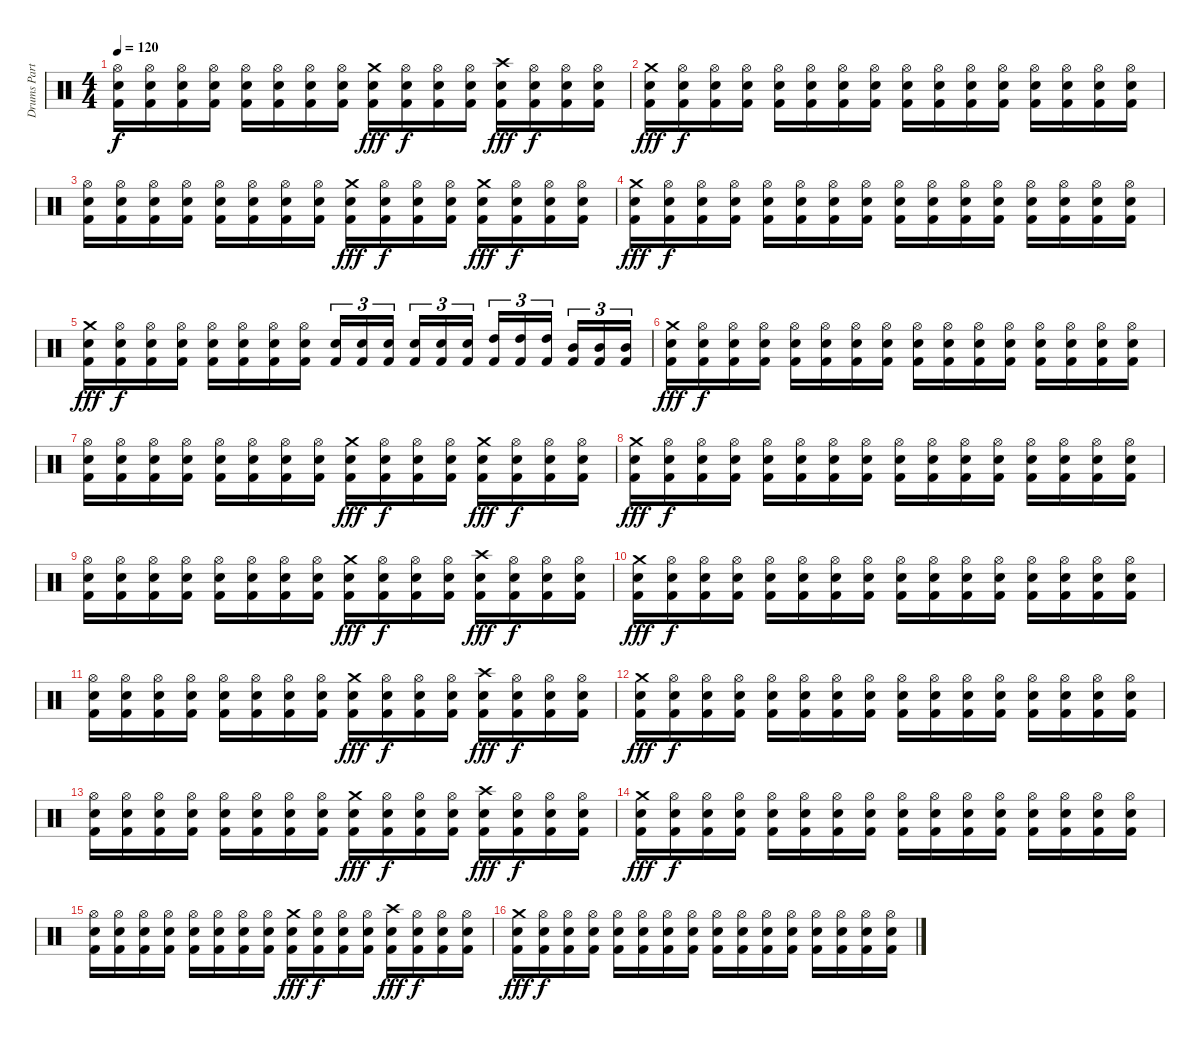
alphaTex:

\track ("Drums Part" "Drums Part") {instrument percussion}
\staff {score}
\articulation defaults
\ts (4 4)
\tempo 120
\clef neutral
\ks c
("Hi-Hat (open)" "Electric Snare (hit)" "Kick (hit) 2").16{dy f} ("Hi-Hat (open)" "Electric Snare (hit)" "Kick (hit) 2").16 ("Hi-Hat (open)" "Electric Snare (hit)" "Kick (hit) 2").16 ("Hi-Hat (open)" "Electric Snare (hit)" "Kick (hit) 2").16 ("Hi-Hat (open)" "Electric Snare (hit)" "Kick (hit) 2").16 ("Hi-Hat (open)" "Electric Snare (hit)" "Kick (hit) 2").16 ("Hi-Hat (open)" "Electric Snare (hit)" "Kick (hit) 2").16 ("Hi-Hat (open)" "Electric Snare (hit)" "Kick (hit) 2").16 ("Crash medium (hit)" "Electric Snare (hit)" "Kick (hit) 2").16{dy fff} ("Hi-Hat (open)" "Electric Snare (hit)" "Kick (hit) 2").16{dy f} ("Hi-Hat (open)" "Electric Snare (hit)" "Kick (hit) 2").16 ("Hi-Hat (open)" "Electric Snare (hit)" "Kick (hit) 2").16 ("Crash high (hit)" "Electric Snare (hit)" "Kick (hit) 2").16{dy fff} ("Hi-Hat (open)" "Electric Snare (hit)" "Kick (hit) 2").16{dy f} ("Hi-Hat (open)" "Electric Snare (hit)" "Kick (hit) 2").16 ("Hi-Hat (open)" "Electric Snare (hit)" "Kick (hit) 2").16 |
("Crash medium (hit)" "Electric Snare (hit)" "Kick (hit) 2").16{dy fff} ("Hi-Hat (open)" "Electric Snare (hit)" "Kick (hit) 2").16{dy f} ("Hi-Hat (open)" "Electric Snare (hit)" "Kick (hit) 2").16 ("Hi-Hat (open)" "Electric Snare (hit)" "Kick (hit) 2").16 ("Hi-Hat (open)" "Electric Snare (hit)" "Kick (hit) 2").16 ("Hi-Hat (open)" "Electric Snare (hit)" "Kick (hit) 2").16 ("Hi-Hat (open)" "Electric Snare (hit)" "Kick (hit) 2").16 ("Hi-Hat (open)" "Electric Snare (hit)" "Kick (hit) 2").16 ("Hi-Hat (open)" "Electric Snare (hit)" "Kick (hit) 2").16 ("Hi-Hat (open)" "Electric Snare (hit)" "Kick (hit) 2").16 ("Hi-Hat (open)" "Electric Snare (hit)" "Kick (hit) 2").16 ("Hi-Hat (open)" "Electric Snare (hit)" "Kick (hit) 2").16 ("Hi-Hat (open)" "Electric Snare (hit)" "Kick (hit) 2").16 ("Hi-Hat (open)" "Electric Snare (hit)" "Kick (hit) 2").16 ("Hi-Hat (open)" "Electric Snare (hit)" "Kick (hit) 2").16 ("Hi-Hat (open)" "Electric Snare (hit)" "Kick (hit) 2").16 |
("Hi-Hat (open)" "Electric Snare (hit)" "Kick (hit) 2").16 ("Hi-Hat (open)" "Electric Snare (hit)" "Kick (hit) 2").16 ("Hi-Hat (open)" "Electric Snare (hit)" "Kick (hit) 2").16 ("Hi-Hat (open)" "Electric Snare (hit)" "Kick (hit) 2").16 ("Hi-Hat (open)" "Electric Snare (hit)" "Kick (hit) 2").16 ("Hi-Hat (open)" "Electric Snare (hit)" "Kick (hit) 2").16 ("Hi-Hat (open)" "Electric Snare (hit)" "Kick (hit) 2").16 ("Hi-Hat (open)" "Electric Snare (hit)" "Kick (hit) 2").16 ("Crash medium (hit)" "Electric Snare (hit)" "Kick (hit) 2").16{dy fff} ("Hi-Hat (open)" "Electric Snare (hit)" "Kick (hit) 2").16{dy f} ("Hi-Hat (open)" "Electric Snare (hit)" "Kick (hit) 2").16 ("Hi-Hat (open)" "Electric Snare (hit)" "Kick (hit) 2").16 ("Crash medium (hit)" "Electric Snare (hit)" "Kick (hit) 2").16{dy fff} ("Hi-Hat (open)" "Electric Snare (hit)" "Kick (hit) 2").16{dy f} ("Hi-Hat (open)" "Electric Snare (hit)" "Kick (hit) 2").16 ("Hi-Hat (open)" "Electric Snare (hit)" "Kick (hit) 2").16 |
("Crash medium (hit)" "Electric Snare (hit)" "Kick (hit) 2").16{dy fff} ("Hi-Hat (open)" "Electric Snare (hit)" "Kick (hit) 2").16{dy f} ("Hi-Hat (open)" "Electric Snare (hit)" "Kick (hit) 2").16 ("Hi-Hat (open)" "Electric Snare (hit)" "Kick (hit) 2").16 ("Hi-Hat (open)" "Electric Snare (hit)" "Kick (hit) 2").16 ("Hi-Hat (open)" "Electric Snare (hit)" "Kick (hit) 2").16 ("Hi-Hat (open)" "Electric Snare (hit)" "Kick (hit) 2").16 ("Hi-Hat (open)" "Electric Snare (hit)" "Kick (hit) 2").16 ("Hi-Hat (open)" "Electric Snare (hit)" "Kick (hit) 2").16 ("Hi-Hat (open)" "Electric Snare (hit)" "Kick (hit) 2").16 ("Hi-Hat (open)" "Electric Snare (hit)" "Kick (hit) 2").16 ("Hi-Hat (open)" "Electric Snare (hit)" "Kick (hit) 2").16 ("Hi-Hat (open)" "Electric Snare (hit)" "Kick (hit) 2").16 ("Hi-Hat (open)" "Electric Snare (hit)" "Kick (hit) 2").16 ("Hi-Hat (open)" "Electric Snare (hit)" "Kick (hit) 2").16 ("Hi-Hat (open)" "Electric Snare (hit)" "Kick (hit) 2").16 |
("Crash medium (hit)" "Electric Snare (hit)" "Kick (hit) 2").16{dy fff} ("Hi-Hat (open)" "Electric Snare (hit)" "Kick (hit) 2").16{dy f} ("Hi-Hat (open)" "Electric Snare (hit)" "Kick (hit) 2").16 ("Hi-Hat (open)" "Electric Snare (hit)" "Kick (hit) 2").16 ("Hi-Hat (open)" "Electric Snare (hit)" "Kick (hit) 2").16 ("Hi-Hat (open)" "Electric Snare (hit)" "Kick (hit) 2").16 ("Hi-Hat (open)" "Electric Snare (hit)" "Kick (hit) 2").16 ("Hi-Hat (open)" "Electric Snare (hit)" "Kick (hit) 2").16 ("Electric Snare (hit)" "Kick (hit) 2").16{tu (3 2)} ("Electric Snare (hit)" "Kick (hit) 2").16{tu (3 2)} ("Electric Snare (hit)" "Kick (hit) 2").16{tu (3 2)} ("Electric Snare (hit)" "Kick (hit) 2").16{tu (3 2)} ("Electric Snare (hit)" "Kick (hit) 2").16{tu (3 2)} ("Electric Snare (hit)" "Kick (hit) 2").16{tu (3 2)} ("High Tom (hit)" "Kick (hit) 2").16{tu (3 2)} ("High Tom (hit)" "Kick (hit) 2").16{tu (3 2)} ("High Tom (hit)" "Kick (hit) 2").16{tu (3 2)} ("Mid Tom (hit)" "Kick (hit) 2").16{tu (3 2)} ("Mid Tom (hit)" "Kick (hit) 2").16{tu (3 2)} ("Mid Tom (hit)" "Kick (hit) 2").16{tu (3 2)} |
("Crash medium (hit)" "Electric Snare (hit)" "Kick (hit) 2").16{dy fff} ("Hi-Hat (open)" "Electric Snare (hit)" "Kick (hit) 2").16{dy f} ("Hi-Hat (open)" "Electric Snare (hit)" "Kick (hit) 2").16 ("Hi-Hat (open)" "Electric Snare (hit)" "Kick (hit) 2").16 ("Hi-Hat (open)" "Electric Snare (hit)" "Kick (hit) 2").16 ("Hi-Hat (open)" "Electric Snare (hit)" "Kick (hit) 2").16 ("Hi-Hat (open)" "Electric Snare (hit)" "Kick (hit) 2").16 ("Hi-Hat (open)" "Electric Snare (hit)" "Kick (hit) 2").16 ("Hi-Hat (open)" "Electric Snare (hit)" "Kick (hit) 2").16 ("Hi-Hat (open)" "Electric Snare (hit)" "Kick (hit) 2").16 ("Hi-Hat (open)" "Electric Snare (hit)" "Kick (hit) 2").16 ("Hi-Hat (open)" "Electric Snare (hit)" "Kick (hit) 2").16 ("Hi-Hat (open)" "Electric Snare (hit)" "Kick (hit) 2").16 ("Hi-Hat (open)" "Electric Snare (hit)" "Kick (hit) 2").16 ("Hi-Hat (open)" "Electric Snare (hit)" "Kick (hit) 2").16 ("Hi-Hat (open)" "Electric Snare (hit)" "Kick (hit) 2").16 |
("Hi-Hat (open)" "Electric Snare (hit)" "Kick (hit) 2").16 ("Hi-Hat (open)" "Electric Snare (hit)" "Kick (hit) 2").16 ("Hi-Hat (open)" "Electric Snare (hit)" "Kick (hit) 2").16 ("Hi-Hat (open)" "Electric Snare (hit)" "Kick (hit) 2").16 ("Hi-Hat (open)" "Electric Snare (hit)" "Kick (hit) 2").16 ("Hi-Hat (open)" "Electric Snare (hit)" "Kick (hit) 2").16 ("Hi-Hat (open)" "Electric Snare (hit)" "Kick (hit) 2").16 ("Hi-Hat (open)" "Electric Snare (hit)" "Kick (hit) 2").16 ("Crash medium (hit)" "Electric Snare (hit)" "Kick (hit) 2").16{dy fff} ("Hi-Hat (open)" "Electric Snare (hit)" "Kick (hit) 2").16{dy f} ("Hi-Hat (open)" "Electric Snare (hit)" "Kick (hit) 2").16 ("Hi-Hat (open)" "Electric Snare (hit)" "Kick (hit) 2").16 ("Crash medium (hit)" "Electric Snare (hit)" "Kick (hit) 2").16{dy fff} ("Hi-Hat (open)" "Electric Snare (hit)" "Kick (hit) 2").16{dy f} ("Hi-Hat (open)" "Electric Snare (hit)" "Kick (hit) 2").16 ("Hi-Hat (open)" "Electric Snare (hit)" "Kick (hit) 2").16 |
("Crash medium (hit)" "Electric Snare (hit)" "Kick (hit) 2").16{dy fff} ("Hi-Hat (open)" "Electric Snare (hit)" "Kick (hit) 2").16{dy f} ("Hi-Hat (open)" "Electric Snare (hit)" "Kick (hit) 2").16 ("Hi-Hat (open)" "Electric Snare (hit)" "Kick (hit) 2").16 ("Hi-Hat (open)" "Electric Snare (hit)" "Kick (hit) 2").16 ("Hi-Hat (open)" "Electric Snare (hit)" "Kick (hit) 2").16 ("Hi-Hat (open)" "Electric Snare (hit)" "Kick (hit) 2").16 ("Hi-Hat (open)" "Electric Snare (hit)" "Kick (hit) 2").16 ("Hi-Hat (open)" "Electric Snare (hit)" "Kick (hit) 2").16 ("Hi-Hat (open)" "Electric Snare (hit)" "Kick (hit) 2").16 ("Hi-Hat (open)" "Electric Snare (hit)" "Kick (hit) 2").16 ("Hi-Hat (open)" "Electric Snare (hit)" "Kick (hit) 2").16 ("Hi-Hat (open)" "Electric Snare (hit)" "Kick (hit) 2").16 ("Hi-Hat (open)" "Electric Snare (hit)" "Kick (hit) 2").16 ("Hi-Hat (open)" "Electric Snare (hit)" "Kick (hit) 2").16 ("Hi-Hat (open)" "Electric Snare (hit)" "Kick (hit) 2").16 |
("Hi-Hat (open)" "Electric Snare (hit)" "Kick (hit) 2").16 ("Hi-Hat (open)" "Electric Snare (hit)" "Kick (hit) 2").16 ("Hi-Hat (open)" "Electric Snare (hit)" "Kick (hit) 2").16 ("Hi-Hat (open)" "Electric Snare (hit)" "Kick (hit) 2").16 ("Hi-Hat (open)" "Electric Snare (hit)" "Kick (hit) 2").16 ("Hi-Hat (open)" "Electric Snare (hit)" "Kick (hit) 2").16 ("Hi-Hat (open)" "Electric Snare (hit)" "Kick (hit) 2").16 ("Hi-Hat (open)" "Electric Snare (hit)" "Kick (hit) 2").16 ("Crash medium (hit)" "Electric Snare (hit)" "Kick (hit) 2").16{dy fff} ("Hi-Hat (open)" "Electric Snare (hit)" "Kick (hit) 2").16{dy f} ("Hi-Hat (open)" "Electric Snare (hit)" "Kick (hit) 2").16 ("Hi-Hat (open)" "Electric Snare (hit)" "Kick (hit) 2").16 ("Crash high (hit)" "Electric Snare (hit)" "Kick (hit) 2").16{dy fff} ("Hi-Hat (open)" "Electric Snare (hit)" "Kick (hit) 2").16{dy f} ("Hi-Hat (open)" "Electric Snare (hit)" "Kick (hit) 2").16 ("Hi-Hat (open)" "Electric Snare (hit)" "Kick (hit) 2").16 |
("Crash medium (hit)" "Electric Snare (hit)" "Kick (hit) 2").16{dy fff} ("Hi-Hat (open)" "Electric Snare (hit)" "Kick (hit) 2").16{dy f} ("Hi-Hat (open)" "Electric Snare (hit)" "Kick (hit) 2").16 ("Hi-Hat (open)" "Electric Snare (hit)" "Kick (hit) 2").16 ("Hi-Hat (open)" "Electric Snare (hit)" "Kick (hit) 2").16 ("Hi-Hat (open)" "Electric Snare (hit)" "Kick (hit) 2").16 ("Hi-Hat (open)" "Electric Snare (hit)" "Kick (hit) 2").16 ("Hi-Hat (open)" "Electric Snare (hit)" "Kick (hit) 2").16 ("Hi-Hat (open)" "Electric Snare (hit)" "Kick (hit) 2").16 ("Hi-Hat (open)" "Electric Snare (hit)" "Kick (hit) 2").16 ("Hi-Hat (open)" "Electric Snare (hit)" "Kick (hit) 2").16 ("Hi-Hat (open)" "Electric Snare (hit)" "Kick (hit) 2").16 ("Hi-Hat (open)" "Electric Snare (hit)" "Kick (hit) 2").16 ("Hi-Hat (open)" "Electric Snare (hit)" "Kick (hit) 2").16 ("Hi-Hat (open)" "Electric Snare (hit)" "Kick (hit) 2").16 ("Hi-Hat (open)" "Electric Snare (hit)" "Kick (hit) 2").16 |
("Hi-Hat (open)" "Electric Snare (hit)" "Kick (hit) 2").16 ("Hi-Hat (open)" "Electric Snare (hit)" "Kick (hit) 2").16 ("Hi-Hat (open)" "Electric Snare (hit)" "Kick (hit) 2").16 ("Hi-Hat (open)" "Electric Snare (hit)" "Kick (hit) 2").16 ("Hi-Hat (open)" "Electric Snare (hit)" "Kick (hit) 2").16 ("Hi-Hat (open)" "Electric Snare (hit)" "Kick (hit) 2").16 ("Hi-Hat (open)" "Electric Snare (hit)" "Kick (hit) 2").16 ("Hi-Hat (open)" "Electric Snare (hit)" "Kick (hit) 2").16 ("Crash medium (hit)" "Electric Snare (hit)" "Kick (hit) 2").16{dy fff} ("Hi-Hat (open)" "Electric Snare (hit)" "Kick (hit) 2").16{dy f} ("Hi-Hat (open)" "Electric Snare (hit)" "Kick (hit) 2").16 ("Hi-Hat (open)" "Electric Snare (hit)" "Kick (hit) 2").16 ("Crash high (hit)" "Electric Snare (hit)" "Kick (hit) 2").16{dy fff} ("Hi-Hat (open)" "Electric Snare (hit)" "Kick (hit) 2").16{dy f} ("Hi-Hat (open)" "Electric Snare (hit)" "Kick (hit) 2").16 ("Hi-Hat (open)" "Electric Snare (hit)" "Kick (hit) 2").16 |
("Crash medium (hit)" "Electric Snare (hit)" "Kick (hit) 2").16{dy fff} ("Hi-Hat (open)" "Electric Snare (hit)" "Kick (hit) 2").16{dy f} ("Hi-Hat (open)" "Electric Snare (hit)" "Kick (hit) 2").16 ("Hi-Hat (open)" "Electric Snare (hit)" "Kick (hit) 2").16 ("Hi-Hat (open)" "Electric Snare (hit)" "Kick (hit) 2").16 ("Hi-Hat (open)" "Electric Snare (hit)" "Kick (hit) 2").16 ("Hi-Hat (open)" "Electric Snare (hit)" "Kick (hit) 2").16 ("Hi-Hat (open)" "Electric Snare (hit)" "Kick (hit) 2").16 ("Hi-Hat (open)" "Electric Snare (hit)" "Kick (hit) 2").16 ("Hi-Hat (open)" "Electric Snare (hit)" "Kick (hit) 2").16 ("Hi-Hat (open)" "Electric Snare (hit)" "Kick (hit) 2").16 ("Hi-Hat (open)" "Electric Snare (hit)" "Kick (hit) 2").16 ("Hi-Hat (open)" "Electric Snare (hit)" "Kick (hit) 2").16 ("Hi-Hat (open)" "Electric Snare (hit)" "Kick (hit) 2").16 ("Hi-Hat (open)" "Electric Snare (hit)" "Kick (hit) 2").16 ("Hi-Hat (open)" "Electric Snare (hit)" "Kick (hit) 2").16 |
("Hi-Hat (open)" "Electric Snare (hit)" "Kick (hit) 2").16 ("Hi-Hat (open)" "Electric Snare (hit)" "Kick (hit) 2").16 ("Hi-Hat (open)" "Electric Snare (hit)" "Kick (hit) 2").16 ("Hi-Hat (open)" "Electric Snare (hit)" "Kick (hit) 2").16 ("Hi-Hat (open)" "Electric Snare (hit)" "Kick (hit) 2").16 ("Hi-Hat (open)" "Electric Snare (hit)" "Kick (hit) 2").16 ("Hi-Hat (open)" "Electric Snare (hit)" "Kick (hit) 2").16 ("Hi-Hat (open)" "Electric Snare (hit)" "Kick (hit) 2").16 ("Crash medium (hit)" "Electric Snare (hit)" "Kick (hit) 2").16{dy fff} ("Hi-Hat (open)" "Electric Snare (hit)" "Kick (hit) 2").16{dy f} ("Hi-Hat (open)" "Electric Snare (hit)" "Kick (hit) 2").16 ("Hi-Hat (open)" "Electric Snare (hit)" "Kick (hit) 2").16 ("Crash high (hit)" "Electric Snare (hit)" "Kick (hit) 2").16{dy fff} ("Hi-Hat (open)" "Electric Snare (hit)" "Kick (hit) 2").16{dy f} ("Hi-Hat (open)" "Electric Snare (hit)" "Kick (hit) 2").16 ("Hi-Hat (open)" "Electric Snare (hit)" "Kick (hit) 2").16 |
("Crash medium (hit)" "Electric Snare (hit)" "Kick (hit) 2").16{dy fff} ("Hi-Hat (open)" "Electric Snare (hit)" "Kick (hit) 2").16{dy f} ("Hi-Hat (open)" "Electric Snare (hit)" "Kick (hit) 2").16 ("Hi-Hat (open)" "Electric Snare (hit)" "Kick (hit) 2").16 ("Hi-Hat (open)" "Electric Snare (hit)" "Kick (hit) 2").16 ("Hi-Hat (open)" "Electric Snare (hit)" "Kick (hit) 2").16 ("Hi-Hat (open)" "Electric Snare (hit)" "Kick (hit) 2").16 ("Hi-Hat (open)" "Electric Snare (hit)" "Kick (hit) 2").16 ("Hi-Hat (open)" "Electric Snare (hit)" "Kick (hit) 2").16 ("Hi-Hat (open)" "Electric Snare (hit)" "Kick (hit) 2").16 ("Hi-Hat (open)" "Electric Snare (hit)" "Kick (hit) 2").16 ("Hi-Hat (open)" "Electric Snare (hit)" "Kick (hit) 2").16 ("Hi-Hat (open)" "Electric Snare (hit)" "Kick (hit) 2").16 ("Hi-Hat (open)" "Electric Snare (hit)" "Kick (hit) 2").16 ("Hi-Hat (open)" "Electric Snare (hit)" "Kick (hit) 2").16 ("Hi-Hat (open)" "Electric Snare (hit)" "Kick (hit) 2").16 |
("Hi-Hat (open)" "Electric Snare (hit)" "Kick (hit) 2").16 ("Hi-Hat (open)" "Electric Snare (hit)" "Kick (hit) 2").16 ("Hi-Hat (open)" "Electric Snare (hit)" "Kick (hit) 2").16 ("Hi-Hat (open)" "Electric Snare (hit)" "Kick (hit) 2").16 ("Hi-Hat (open)" "Electric Snare (hit)" "Kick (hit) 2").16 ("Hi-Hat (open)" "Electric Snare (hit)" "Kick (hit) 2").16 ("Hi-Hat (open)" "Electric Snare (hit)" "Kick (hit) 2").16 ("Hi-Hat (open)" "Electric Snare (hit)" "Kick (hit) 2").16 ("Crash medium (hit)" "Electric Snare (hit)" "Kick (hit) 2").16{dy fff} ("Hi-Hat (open)" "Electric Snare (hit)" "Kick (hit) 2").16{dy f} ("Hi-Hat (open)" "Electric Snare (hit)" "Kick (hit) 2").16 ("Hi-Hat (open)" "Electric Snare (hit)" "Kick (hit) 2").16 ("Crash high (hit)" "Electric Snare (hit)" "Kick (hit) 2").16{dy fff} ("Hi-Hat (open)" "Electric Snare (hit)" "Kick (hit) 2").16{dy f} ("Hi-Hat (open)" "Electric Snare (hit)" "Kick (hit) 2").16 ("Hi-Hat (open)" "Electric Snare (hit)" "Kick (hit) 2").16 |
("Crash medium (hit)" "Electric Snare (hit)" "Kick (hit) 2").16{dy fff} ("Hi-Hat (open)" "Electric Snare (hit)" "Kick (hit) 2").16{dy f} ("Hi-Hat (open)" "Electric Snare (hit)" "Kick (hit) 2").16 ("Hi-Hat (open)" "Electric Snare (hit)" "Kick (hit) 2").16 ("Hi-Hat (open)" "Electric Snare (hit)" "Kick (hit) 2").16 ("Hi-Hat (open)" "Electric Snare (hit)" "Kick (hit) 2").16 ("Hi-Hat (open)" "Electric Snare (hit)" "Kick (hit) 2").16 ("Hi-Hat (open)" "Electric Snare (hit)" "Kick (hit) 2").16 ("Hi-Hat (open)" "Electric Snare (hit)" "Kick (hit) 2").16 ("Hi-Hat (open)" "Electric Snare (hit)" "Kick (hit) 2").16 ("Hi-Hat (open)" "Electric Snare (hit)" "Kick (hit) 2").16 ("Hi-Hat (open)" "Electric Snare (hit)" "Kick (hit) 2").16 ("Hi-Hat (open)" "Electric Snare (hit)" "Kick (hit) 2").16 ("Hi-Hat (open)" "Electric Snare (hit)" "Kick (hit) 2").16 ("Hi-Hat (open)" "Electric Snare (hit)" "Kick (hit) 2").16 ("Hi-Hat (open)" "Electric Snare (hit)" "Kick (hit) 2").16
